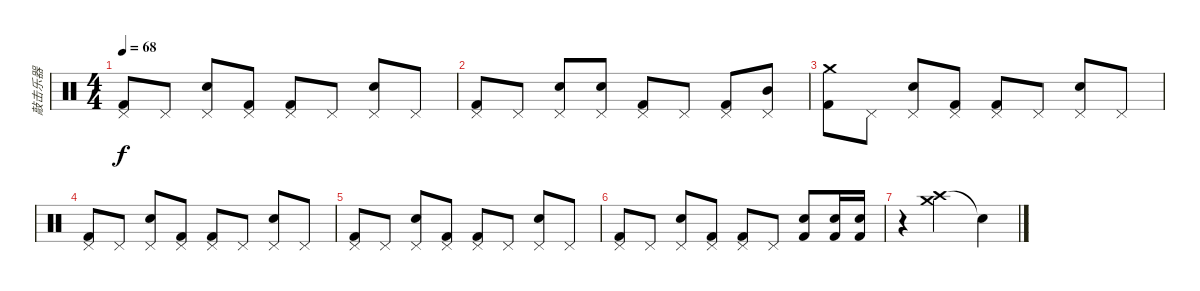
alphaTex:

\track ("敲击乐器" "敲击乐器") {instrument percussion}
\staff {score}
\articulation defaults
\ts (4 4)
\tempo 68
\clef neutral
\ks c
("Pedal Hi-Hat (hit)" "Kick (hit) 2").8{dy f} "Pedal Hi-Hat (hit)".8 ("Pedal Hi-Hat (hit)" "Snare (hit) 2").8 ("Pedal Hi-Hat (hit)" "Kick (hit) 2").8 ("Pedal Hi-Hat (hit)" "Kick (hit) 2").8 "Pedal Hi-Hat (hit)".8 ("Pedal Hi-Hat (hit)" "Snare (hit) 2").8 "Pedal Hi-Hat (hit)".8 |
("Pedal Hi-Hat (hit)" "Kick (hit) 2").8 "Pedal Hi-Hat (hit)".8 ("Pedal Hi-Hat (hit)" "Snare (hit) 2").8 ("Pedal Hi-Hat (hit)" "Snare (hit) 2").8 ("Pedal Hi-Hat (hit)" "Kick (hit) 2").8 "Pedal Hi-Hat (hit)".8 ("Pedal Hi-Hat (hit)" "Kick (hit) 2").8 ("Pedal Hi-Hat (hit)" "Mid Tom (hit)").8 |
("Crash medium (hit)" "Kick (hit) 2").8 "Pedal Hi-Hat (hit)".8 ("Pedal Hi-Hat (hit)" "Snare (hit) 2").8 ("Pedal Hi-Hat (hit)" "Kick (hit) 2").8 ("Pedal Hi-Hat (hit)" "Kick (hit) 2").8 "Pedal Hi-Hat (hit)".8 ("Pedal Hi-Hat (hit)" "Snare (hit) 2").8 "Pedal Hi-Hat (hit)".8 |
("Pedal Hi-Hat (hit)" "Kick (hit) 2").8 "Pedal Hi-Hat (hit)".8 ("Pedal Hi-Hat (hit)" "Snare (hit) 2").8 ("Pedal Hi-Hat (hit)" "Kick (hit) 2").8 ("Pedal Hi-Hat (hit)" "Kick (hit) 2").8 "Pedal Hi-Hat (hit)".8 ("Pedal Hi-Hat (hit)" "Snare (hit) 2").8 "Pedal Hi-Hat (hit)".8 |
("Pedal Hi-Hat (hit)" "Kick (hit) 2").8 "Pedal Hi-Hat (hit)".8 ("Pedal Hi-Hat (hit)" "Snare (hit) 2").8 ("Pedal Hi-Hat (hit)" "Kick (hit) 2").8 ("Pedal Hi-Hat (hit)" "Kick (hit) 2").8 "Pedal Hi-Hat (hit)".8 ("Pedal Hi-Hat (hit)" "Snare (hit) 2").8 "Pedal Hi-Hat (hit)".8 |
("Pedal Hi-Hat (hit)" "Kick (hit) 2").8 "Pedal Hi-Hat (hit)".8 ("Pedal Hi-Hat (hit)" "Snare (hit) 2").8 ("Pedal Hi-Hat (hit)" "Kick (hit) 2").8 ("Pedal Hi-Hat (hit)" "Kick (hit) 2").8 "Pedal Hi-Hat (hit)".8 ("Electric Snare (hit)" "Kick (hit) 2").8 ("Snare (hit) 2" "Kick (hit) 2").16 ("Snare (hit) 2" "Kick (hit) 2").16 |
r.4 ("Crash high (hit)" "Crash medium (hit)").2 "Snare (hit)"{t}.4
